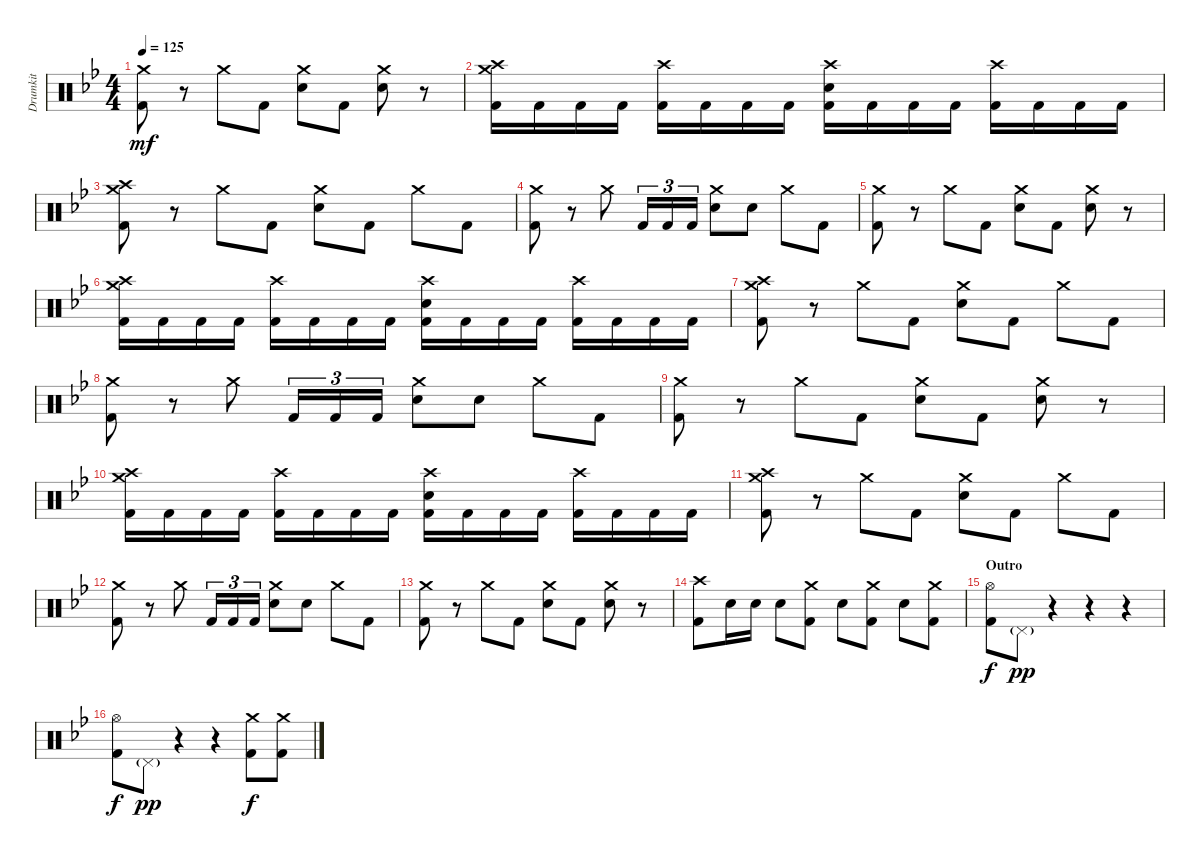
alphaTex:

\track ("Drumkit" "Drumkit") {instrument percussion}
\staff {score}
\articulation defaults
\ts (4 4)
\tempo 125
\clef neutral
\ks bb
("Crash medium (hit)" "Kick (hit) 2").8{dy mf} r.8 "Crash medium (hit)".8 "Kick (hit) 2".8 ("Crash medium (hit)" "Snare (hit) 2").8 "Kick (hit) 2".8 ("Crash medium (hit)" "Snare (hit) 2").8 r.8 |
("Crash high (hit)" "Crash medium (hit)" "Kick (hit) 2").16 "Kick (hit) 2".16 "Kick (hit) 2".16 "Kick (hit) 2".16 ("Crash high (hit)" "Kick (hit) 2").16 "Kick (hit) 2".16 "Kick (hit) 2".16 "Kick (hit) 2".16 ("Crash high (hit)" "Snare (hit) 2" "Kick (hit) 2").16 "Kick (hit) 2".16 "Kick (hit) 2".16 "Kick (hit) 2".16 ("Crash high (hit)" "Kick (hit) 2").16 "Kick (hit) 2".16 "Kick (hit) 2".16 "Kick (hit) 2".16 |
("Crash high (hit)" "Crash medium (hit)" "Kick (hit) 2").8 r.8 "Crash medium (hit)".8 "Kick (hit) 2".8 ("Crash medium (hit)" "Snare (hit) 2").8 "Kick (hit) 2".8 "Crash medium (hit)".8 "Kick (hit) 2".8 |
("Crash medium (hit)" "Kick (hit) 2").8 r.8 "Crash medium (hit)".8 "Kick (hit) 2".16{tu (3 2)} "Kick (hit) 2".16{tu (3 2)} "Kick (hit) 2".16{tu (3 2)} ("Crash medium (hit)" "Snare (hit) 2").8 "Snare (hit) 2".8 "Crash medium (hit)".8 "Kick (hit) 2".8 |
("Crash medium (hit)" "Kick (hit) 2").8 r.8 "Crash medium (hit)".8 "Kick (hit) 2".8 ("Crash medium (hit)" "Snare (hit) 2").8 "Kick (hit) 2".8 ("Crash medium (hit)" "Snare (hit) 2").8 r.8 |
("Crash high (hit)" "Crash medium (hit)" "Kick (hit) 2").16 "Kick (hit) 2".16 "Kick (hit) 2".16 "Kick (hit) 2".16 ("Crash high (hit)" "Kick (hit) 2").16 "Kick (hit) 2".16 "Kick (hit) 2".16 "Kick (hit) 2".16 ("Crash high (hit)" "Snare (hit) 2" "Kick (hit) 2").16 "Kick (hit) 2".16 "Kick (hit) 2".16 "Kick (hit) 2".16 ("Crash high (hit)" "Kick (hit) 2").16 "Kick (hit) 2".16 "Kick (hit) 2".16 "Kick (hit) 2".16 |
("Crash high (hit)" "Crash medium (hit)" "Kick (hit) 2").8 r.8 "Crash medium (hit)".8 "Kick (hit) 2".8 ("Crash medium (hit)" "Snare (hit) 2").8 "Kick (hit) 2".8 "Crash medium (hit)".8 "Kick (hit) 2".8 |
("Crash medium (hit)" "Kick (hit) 2").8 r.8 "Crash medium (hit)".8 "Kick (hit) 2".16{tu (3 2)} "Kick (hit) 2".16{tu (3 2)} "Kick (hit) 2".16{tu (3 2)} ("Crash medium (hit)" "Snare (hit) 2").8 "Snare (hit) 2".8 "Crash medium (hit)".8 "Kick (hit) 2".8 |
("Crash medium (hit)" "Kick (hit) 2").8 r.8 "Crash medium (hit)".8 "Kick (hit) 2".8 ("Crash medium (hit)" "Snare (hit) 2").8 "Kick (hit) 2".8 ("Crash medium (hit)" "Snare (hit) 2").8 r.8 |
("Crash high (hit)" "Crash medium (hit)" "Kick (hit) 2").16 "Kick (hit) 2".16 "Kick (hit) 2".16 "Kick (hit) 2".16 ("Crash high (hit)" "Kick (hit) 2").16 "Kick (hit) 2".16 "Kick (hit) 2".16 "Kick (hit) 2".16 ("Crash high (hit)" "Snare (hit) 2" "Kick (hit) 2").16 "Kick (hit) 2".16 "Kick (hit) 2".16 "Kick (hit) 2".16 ("Crash high (hit)" "Kick (hit) 2").16 "Kick (hit) 2".16 "Kick (hit) 2".16 "Kick (hit) 2".16 |
("Crash high (hit)" "Crash medium (hit)" "Kick (hit) 2").8 r.8 "Crash medium (hit)".8 "Kick (hit) 2".8 ("Crash medium (hit)" "Snare (hit) 2").8 "Kick (hit) 2".8 "Crash medium (hit)".8 "Kick (hit) 2".8 |
("Crash medium (hit)" "Kick (hit) 2").8 r.8 "Crash medium (hit)".8 "Kick (hit) 2".16{tu (3 2)} "Kick (hit) 2".16{tu (3 2)} "Kick (hit) 2".16{tu (3 2)} ("Crash medium (hit)" "Snare (hit) 2").8 "Snare (hit) 2".8 "Crash medium (hit)".8 "Kick (hit) 2".8 |
("Crash medium (hit)" "Kick (hit) 2").8 r.8 "Crash medium (hit)".8 "Kick (hit) 2".8 ("Crash medium (hit)" "Snare (hit) 2").8 "Kick (hit) 2".8 ("Crash medium (hit)" "Snare (hit) 2").8 r.8 |
("Crash high (hit)" "Kick (hit) 2").8 "Snare (hit) 2".16 "Snare (hit) 2".16 "Snare (hit) 2".8 ("Crash medium (hit)" "Kick (hit) 2").8 "Snare (hit) 2".8 ("Crash medium (hit)" "Kick (hit) 2").8 "Snare (hit) 2".8 ("Crash medium (hit)" "Kick (hit) 2").8 |
\section ("" "Outro")
("Hi-Hat (open)" "Kick (hit) 2").8{dy f} "Pedal Hi-Hat (hit)"{g}.8{dy pp} r.4 r.4 r.4 |
("Hi-Hat (open)" "Kick (hit) 2").8{dy f} "Pedal Hi-Hat (hit)"{g}.8{dy pp} r.4 r.4 ("Crash medium (hit)" "Kick (hit) 2").8{dy f} ("Crash medium (hit)" "Kick (hit) 2").8
